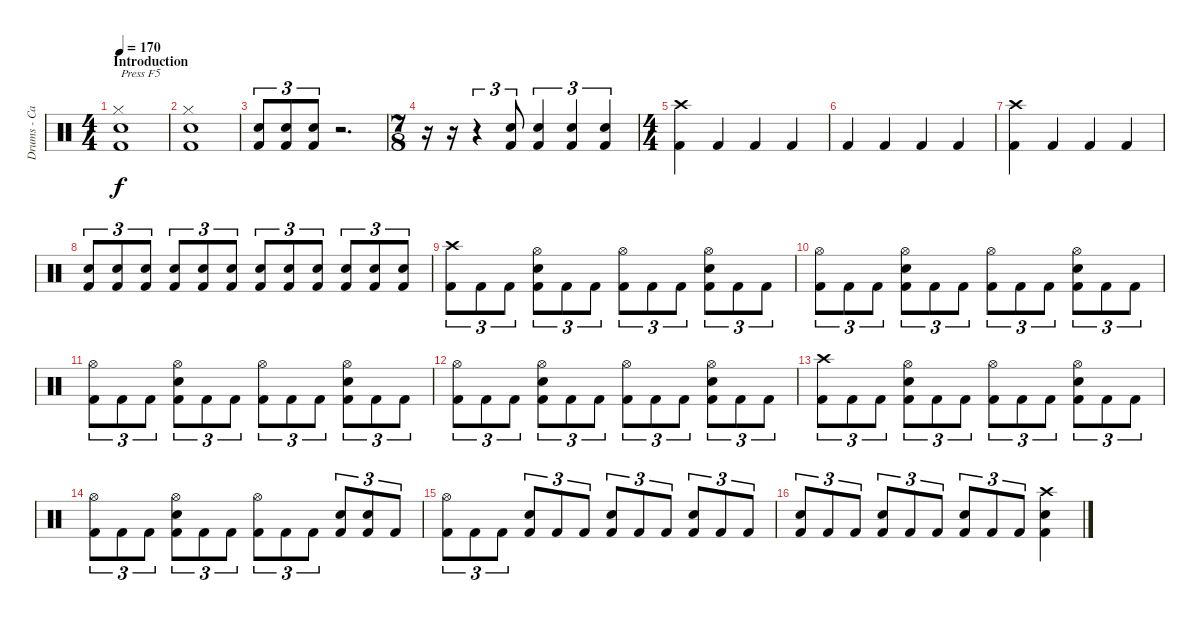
\track ("Drums - Casey Grillo" "Drums - Ca") {instrument percussion}
\staff {score}
\articulation defaults
\ts (4 4)
\section ("" "Introduction")
\tempo 170
\clef neutral
\ks c
("Hi-Hat (closed)" "Snare (hit) 2" "Kick (hit) 2").1{txt "Press F5" dy f} |
("Hi-Hat (closed)" "Snare (hit) 2" "Kick (hit) 2").1 |
("Snare (hit) 2" "Kick (hit) 2").8{tu (3 2)} ("Snare (hit) 2" "Kick (hit) 2").8{tu (3 2)} ("Snare (hit) 2" "Kick (hit) 2").8{tu (3 2)} r.2{d} |
\ts (7 8)
r.16 r.16 r.4{tu (3 2)} ("Snare (hit) 2" "Kick (hit) 2").8{tu (3 2)} ("Snare (hit) 2" "Kick (hit) 2").4{tu (3 2)} ("Snare (hit) 2" "Kick (hit) 2").4{tu (3 2)} ("Snare (hit) 2" "Kick (hit) 2").4{tu (3 2)} |
\ts (4 4)
("Crash high (hit)" "Kick (hit) 2").4 "Kick (hit) 2".4 "Kick (hit) 2".4 "Kick (hit) 2".4 |
"Kick (hit) 2".4 "Kick (hit) 2".4 "Kick (hit) 2".4 "Kick (hit) 2".4 |
("Crash high (hit)" "Kick (hit) 2").4 "Kick (hit) 2".4 "Kick (hit) 2".4 "Kick (hit) 2".4 |
("Snare (hit) 2" "Kick (hit) 2").8{tu (3 2)} ("Snare (hit) 2" "Kick (hit) 2").8{tu (3 2)} ("Snare (hit) 2" "Kick (hit) 2").8{tu (3 2)} ("Snare (hit) 2" "Kick (hit) 2").8{tu (3 2)} ("Snare (hit) 2" "Kick (hit) 2").8{tu (3 2)} ("Snare (hit) 2" "Kick (hit) 2").8{tu (3 2)} ("Snare (hit) 2" "Kick (hit) 2").8{tu (3 2)} ("Snare (hit) 2" "Kick (hit) 2").8{tu (3 2)} ("Snare (hit) 2" "Kick (hit) 2").8{tu (3 2)} ("Snare (hit) 2" "Kick (hit) 2").8{tu (3 2)} ("Snare (hit) 2" "Kick (hit) 2").8{tu (3 2)} ("Snare (hit) 2" "Kick (hit) 2").8{tu (3 2)} |
("Crash high (hit)" "Kick (hit) 2").8{tu (3 2)} "Kick (hit) 2".8{tu (3 2)} "Kick (hit) 2".8{tu (3 2)} ("Hi-Hat (open)" "Snare (hit) 2" "Kick (hit) 2").8{tu (3 2)} "Kick (hit) 2".8{tu (3 2)} "Kick (hit) 2".8{tu (3 2)} ("Hi-Hat (open)" "Kick (hit) 2").8{tu (3 2)} "Kick (hit) 2".8{tu (3 2)} "Kick (hit) 2".8{tu (3 2)} ("Hi-Hat (open)" "Snare (hit) 2" "Kick (hit) 2").8{tu (3 2)} "Kick (hit) 2".8{tu (3 2)} "Kick (hit) 2".8{tu (3 2)} |
("Hi-Hat (open)" "Kick (hit) 2").8{tu (3 2)} "Kick (hit) 2".8{tu (3 2)} "Kick (hit) 2".8{tu (3 2)} ("Hi-Hat (open)" "Snare (hit) 2" "Kick (hit) 2").8{tu (3 2)} "Kick (hit) 2".8{tu (3 2)} "Kick (hit) 2".8{tu (3 2)} ("Hi-Hat (open)" "Kick (hit) 2").8{tu (3 2)} "Kick (hit) 2".8{tu (3 2)} "Kick (hit) 2".8{tu (3 2)} ("Hi-Hat (open)" "Snare (hit) 2" "Kick (hit) 2").8{tu (3 2)} "Kick (hit) 2".8{tu (3 2)} "Kick (hit) 2".8{tu (3 2)} |
("Hi-Hat (open)" "Kick (hit) 2").8{tu (3 2)} "Kick (hit) 2".8{tu (3 2)} "Kick (hit) 2".8{tu (3 2)} ("Hi-Hat (open)" "Snare (hit) 2" "Kick (hit) 2").8{tu (3 2)} "Kick (hit) 2".8{tu (3 2)} "Kick (hit) 2".8{tu (3 2)} ("Hi-Hat (open)" "Kick (hit) 2").8{tu (3 2)} "Kick (hit) 2".8{tu (3 2)} "Kick (hit) 2".8{tu (3 2)} ("Hi-Hat (open)" "Snare (hit) 2" "Kick (hit) 2").8{tu (3 2)} "Kick (hit) 2".8{tu (3 2)} "Kick (hit) 2".8{tu (3 2)} |
("Hi-Hat (open)" "Kick (hit) 2").8{tu (3 2)} "Kick (hit) 2".8{tu (3 2)} "Kick (hit) 2".8{tu (3 2)} ("Hi-Hat (open)" "Snare (hit) 2" "Kick (hit) 2").8{tu (3 2)} "Kick (hit) 2".8{tu (3 2)} "Kick (hit) 2".8{tu (3 2)} ("Hi-Hat (open)" "Kick (hit) 2").8{tu (3 2)} "Kick (hit) 2".8{tu (3 2)} "Kick (hit) 2".8{tu (3 2)} ("Hi-Hat (open)" "Snare (hit) 2" "Kick (hit) 2").8{tu (3 2)} "Kick (hit) 2".8{tu (3 2)} "Kick (hit) 2".8{tu (3 2)} |
("Crash high (hit)" "Kick (hit) 2").8{tu (3 2)} "Kick (hit) 2".8{tu (3 2)} "Kick (hit) 2".8{tu (3 2)} ("Hi-Hat (open)" "Snare (hit) 2" "Kick (hit) 2").8{tu (3 2)} "Kick (hit) 2".8{tu (3 2)} "Kick (hit) 2".8{tu (3 2)} ("Hi-Hat (open)" "Kick (hit) 2").8{tu (3 2)} "Kick (hit) 2".8{tu (3 2)} "Kick (hit) 2".8{tu (3 2)} ("Hi-Hat (open)" "Snare (hit) 2" "Kick (hit) 2").8{tu (3 2)} "Kick (hit) 2".8{tu (3 2)} "Kick (hit) 2".8{tu (3 2)} |
("Hi-Hat (open)" "Kick (hit) 2").8{tu (3 2)} "Kick (hit) 2".8{tu (3 2)} "Kick (hit) 2".8{tu (3 2)} ("Hi-Hat (open)" "Snare (hit) 2" "Kick (hit) 2").8{tu (3 2)} "Kick (hit) 2".8{tu (3 2)} "Kick (hit) 2".8{tu (3 2)} ("Hi-Hat (open)" "Kick (hit) 2").8{tu (3 2)} "Kick (hit) 2".8{tu (3 2)} "Kick (hit) 2".8{tu (3 2)} ("Snare (hit) 2" "Kick (hit) 2").8{tu (3 2)} ("Snare (hit) 2" "Kick (hit) 2").8{tu (3 2)} "Kick (hit) 2".8{tu (3 2)} |
("Hi-Hat (open)" "Kick (hit) 2").8{tu (3 2)} "Kick (hit) 2".8{tu (3 2)} "Kick (hit) 2".8{tu (3 2)} ("Snare (hit) 2" "Kick (hit) 2").8{tu (3 2)} "Kick (hit) 2".8{tu (3 2)} "Kick (hit) 2".8{tu (3 2)} ("Snare (hit) 2" "Kick (hit) 2").8{tu (3 2)} "Kick (hit) 2".8{tu (3 2)} "Kick (hit) 2".8{tu (3 2)} ("Snare (hit) 2" "Kick (hit) 2").8{tu (3 2)} "Kick (hit) 2".8{tu (3 2)} "Kick (hit) 2".8{tu (3 2)} |
("Snare (hit) 2" "Kick (hit) 2").8{tu (3 2)} "Kick (hit) 2".8{tu (3 2)} "Kick (hit) 2".8{tu (3 2)} ("Snare (hit) 2" "Kick (hit) 2").8{tu (3 2)} "Kick (hit) 2".8{tu (3 2)} "Kick (hit) 2".8{tu (3 2)} ("Snare (hit) 2" "Kick (hit) 2").8{tu (3 2)} "Kick (hit) 2".8{tu (3 2)} "Kick (hit) 2".8{tu (3 2)} ("Crash high (hit)" "Snare (hit) 2" "Kick (hit) 2").4
